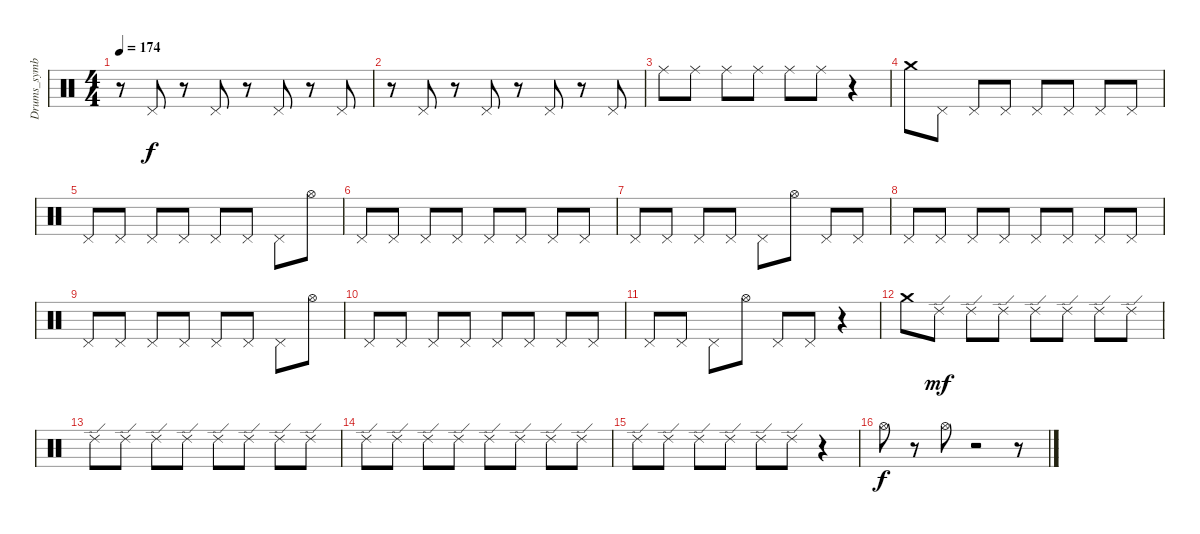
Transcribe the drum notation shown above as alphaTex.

\track ("Drums_symbal" "Drums_symb") {instrument percussion}
\staff {score}
\articulation defaults
\ts (4 4)
\tempo 174
\clef neutral
\ks c
r.8{dy f} "Pedal Hi-Hat (hit)".8 r.8 "Pedal Hi-Hat (hit)".8 r.8 "Pedal Hi-Hat (hit)".8 r.8 "Pedal Hi-Hat (hit)".8 |
r.8 "Pedal Hi-Hat (hit)".8 r.8 "Pedal Hi-Hat (hit)".8 r.8 "Pedal Hi-Hat (hit)".8 r.8 "Pedal Hi-Hat (hit)".8 |
"Ride (middle)".8 "Ride (middle)".8 "Ride (middle)".8 "Ride (middle)".8 "Ride (middle)".8 "Ride (middle)".8 r.4 |
"Crash medium (hit)".8 "Pedal Hi-Hat (hit)".8 "Pedal Hi-Hat (hit)".8 "Pedal Hi-Hat (hit)".8 "Pedal Hi-Hat (hit)".8 "Pedal Hi-Hat (hit)".8 "Pedal Hi-Hat (hit)".8 "Pedal Hi-Hat (hit)".8 |
"Pedal Hi-Hat (hit)".8 "Pedal Hi-Hat (hit)".8 "Pedal Hi-Hat (hit)".8 "Pedal Hi-Hat (hit)".8 "Pedal Hi-Hat (hit)".8 "Pedal Hi-Hat (hit)".8 "Pedal Hi-Hat (hit)".8 "Hi-Hat (open)".8 |
"Pedal Hi-Hat (hit)".8 "Pedal Hi-Hat (hit)".8 "Pedal Hi-Hat (hit)".8 "Pedal Hi-Hat (hit)".8 "Pedal Hi-Hat (hit)".8 "Pedal Hi-Hat (hit)".8 "Pedal Hi-Hat (hit)".8 "Pedal Hi-Hat (hit)".8 |
"Pedal Hi-Hat (hit)".8 "Pedal Hi-Hat (hit)".8 "Pedal Hi-Hat (hit)".8 "Pedal Hi-Hat (hit)".8 "Pedal Hi-Hat (hit)".8 "Hi-Hat (open)".8 "Pedal Hi-Hat (hit)".8 "Pedal Hi-Hat (hit)".8 |
"Pedal Hi-Hat (hit)".8 "Pedal Hi-Hat (hit)".8 "Pedal Hi-Hat (hit)".8 "Pedal Hi-Hat (hit)".8 "Pedal Hi-Hat (hit)".8 "Pedal Hi-Hat (hit)".8 "Pedal Hi-Hat (hit)".8 "Pedal Hi-Hat (hit)".8 |
"Pedal Hi-Hat (hit)".8 "Pedal Hi-Hat (hit)".8 "Pedal Hi-Hat (hit)".8 "Pedal Hi-Hat (hit)".8 "Pedal Hi-Hat (hit)".8 "Pedal Hi-Hat (hit)".8 "Pedal Hi-Hat (hit)".8 "Hi-Hat (open)".8 |
"Pedal Hi-Hat (hit)".8 "Pedal Hi-Hat (hit)".8 "Pedal Hi-Hat (hit)".8 "Pedal Hi-Hat (hit)".8 "Pedal Hi-Hat (hit)".8 "Pedal Hi-Hat (hit)".8 "Pedal Hi-Hat (hit)".8 "Pedal Hi-Hat (hit)".8 |
"Pedal Hi-Hat (hit)".8 "Pedal Hi-Hat (hit)".8 "Pedal Hi-Hat (hit)".8 "Hi-Hat (open)".8 "Pedal Hi-Hat (hit)".8 "Pedal Hi-Hat (hit)".8 r.4 |
"Crash medium (hit)".8 "Ride (edge) 2".8{dy mf} "Ride (edge) 2".8 "Ride (edge) 2".8 "Ride (edge) 2".8 "Ride (edge) 2".8 "Ride (edge) 2".8 "Ride (edge) 2".8 |
"Ride (edge) 2".8 "Ride (edge) 2".8 "Ride (edge) 2".8 "Ride (edge) 2".8 "Ride (edge) 2".8 "Ride (edge) 2".8 "Ride (edge) 2".8 "Ride (edge) 2".8 |
"Ride (edge) 2".8 "Ride (edge) 2".8 "Ride (edge) 2".8 "Ride (edge) 2".8 "Ride (edge) 2".8 "Ride (edge) 2".8 "Ride (edge) 2".8 "Ride (edge) 2".8 |
"Ride (edge) 2".8 "Ride (edge) 2".8 "Ride (edge) 2".8 "Ride (edge) 2".8 "Ride (edge) 2".8 "Ride (edge) 2".8 r.4 |
"Hi-Hat (open)".8{dy f} r.8 "Hi-Hat (open)".8 r.2 r.8
